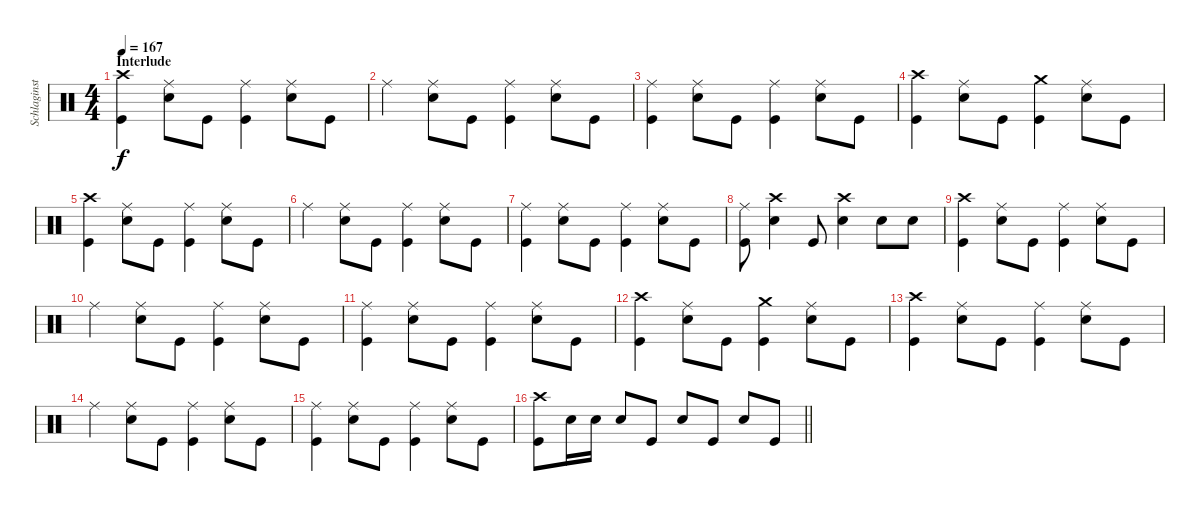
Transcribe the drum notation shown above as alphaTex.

\track ("Schlaginstrumente - Auswahl" "Schlaginst") {instrument percussion}
\staff {score}
\articulation defaults
\ts (4 4)
\section ("" "Interlude")
\tempo 167
\clef neutral
\ks c
("Crash high (hit)" "Kick (hit)").4{dy f} ("Ride (middle)" "Snare (hit) 2").8 "Kick (hit)".8 ("Ride (middle)" "Kick (hit)").4 ("Ride (middle)" "Snare (hit) 2").8 "Kick (hit)".8 |
"Ride (middle)".4 ("Ride (middle)" "Snare (hit) 2").8 "Kick (hit)".8 ("Ride (middle)" "Kick (hit)").4 ("Ride (middle)" "Snare (hit) 2").8 "Kick (hit)".8 |
("Ride (middle)" "Kick (hit)").4 ("Ride (middle)" "Snare (hit) 2").8 "Kick (hit)".8 ("Ride (middle)" "Kick (hit)").4 ("Ride (middle)" "Snare (hit) 2").8 "Kick (hit)".8 |
("Crash high (hit)" "Kick (hit)").4 ("Ride (middle)" "Snare (hit) 2").8 "Kick (hit)".8 ("Crash medium (hit)" "Kick (hit)").4 ("Ride (middle)" "Snare (hit) 2").8 "Kick (hit)".8 |
("Crash high (hit)" "Kick (hit)").4 ("Ride (middle)" "Snare (hit) 2").8 "Kick (hit)".8 ("Ride (middle)" "Kick (hit)").4 ("Ride (middle)" "Snare (hit) 2").8 "Kick (hit)".8 |
"Ride (middle)".4 ("Ride (middle)" "Snare (hit) 2").8 "Kick (hit)".8 ("Ride (middle)" "Kick (hit)").4 ("Ride (middle)" "Snare (hit) 2").8 "Kick (hit)".8 |
("Ride (middle)" "Kick (hit)").4 ("Ride (middle)" "Snare (hit) 2").8 "Kick (hit)".8 ("Ride (middle)" "Kick (hit)").4 ("Ride (middle)" "Snare (hit) 2").8 "Kick (hit)".8 |
("Ride (middle)" "Kick (hit)").8 ("Crash high (hit)" "Snare (hit) 2").4 "Kick (hit)".8 ("Crash high (hit)" "Snare (hit) 2").4 "Snare (hit) 2".8 "Snare (hit) 2".8 |
("Crash high (hit)" "Kick (hit)").4 ("Ride (middle)" "Snare (hit) 2").8 "Kick (hit)".8 ("Ride (middle)" "Kick (hit)").4 ("Ride (middle)" "Snare (hit) 2").8 "Kick (hit)".8 |
"Ride (middle)".4 ("Ride (middle)" "Snare (hit) 2").8 "Kick (hit)".8 ("Ride (middle)" "Kick (hit)").4 ("Ride (middle)" "Snare (hit) 2").8 "Kick (hit)".8 |
("Ride (middle)" "Kick (hit)").4 ("Ride (middle)" "Snare (hit) 2").8 "Kick (hit)".8 ("Ride (middle)" "Kick (hit)").4 ("Ride (middle)" "Snare (hit) 2").8 "Kick (hit)".8 |
("Crash high (hit)" "Kick (hit)").4 ("Ride (middle)" "Snare (hit) 2").8 "Kick (hit)".8 ("Crash medium (hit)" "Kick (hit)").4 ("Ride (middle)" "Snare (hit) 2").8 "Kick (hit)".8 |
("Crash high (hit)" "Kick (hit)").4 ("Ride (middle)" "Snare (hit) 2").8 "Kick (hit)".8 ("Ride (middle)" "Kick (hit)").4 ("Ride (middle)" "Snare (hit) 2").8 "Kick (hit)".8 |
"Ride (middle)".4 ("Ride (middle)" "Snare (hit) 2").8 "Kick (hit)".8 ("Ride (middle)" "Kick (hit)").4 ("Ride (middle)" "Snare (hit) 2").8 "Kick (hit)".8 |
("Ride (middle)" "Kick (hit)").4 ("Ride (middle)" "Snare (hit) 2").8 "Kick (hit)".8 ("Ride (middle)" "Kick (hit)").4 ("Ride (middle)" "Snare (hit) 2").8 "Kick (hit)".8 |
\barLineRight lightlight
("Crash high (hit)" "Kick (hit)").8 "Snare (hit) 2".16 "Snare (hit) 2".16 "Snare (hit) 2".8 "Kick (hit)".8 "Snare (hit) 2".8 "Kick (hit)".8 "Snare (hit) 2".8 "Kick (hit)".8
